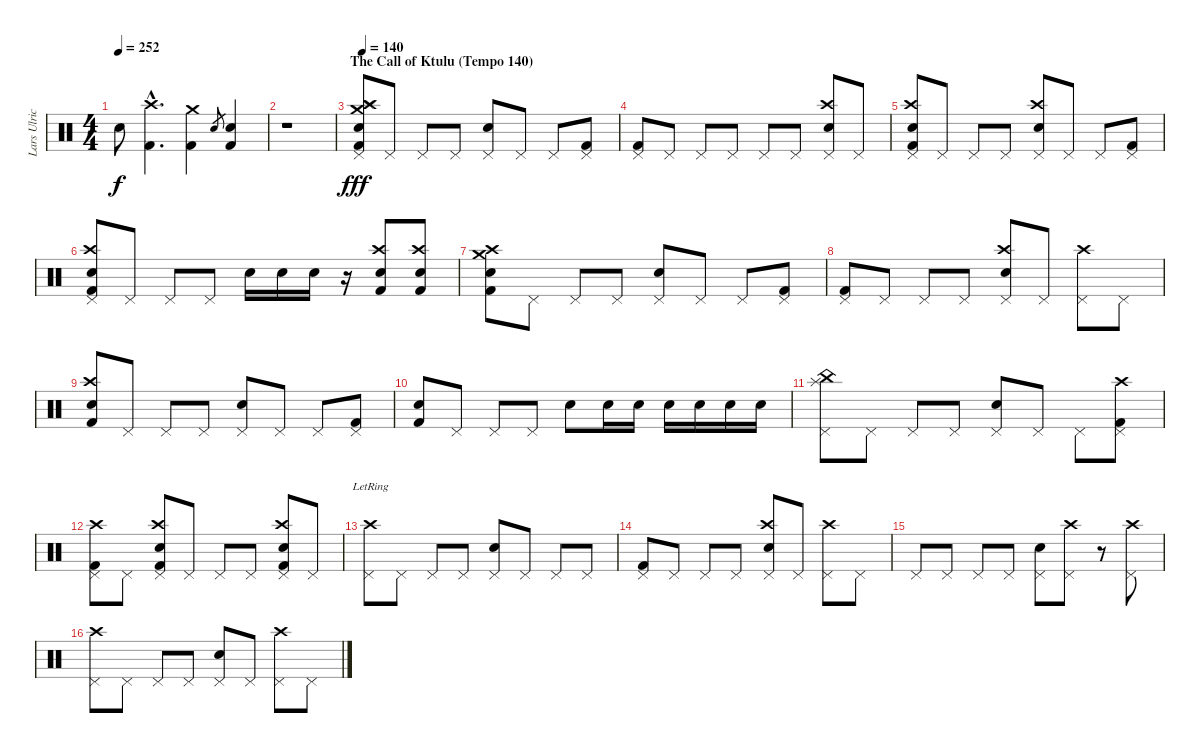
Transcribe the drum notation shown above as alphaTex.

\track ("Lars Ulrich (Drums)" "Lars Ulric") {instrument percussion}
\staff {score}
\articulation defaults
\ts (4 4)
\tempo 252
\clef neutral
\ks c "Snare (hit)"{t}.8{dy f}
("Crash high (hit)"{hac} "Kick (hit) 2"{hac}).4{d} ("Crash medium (hit)" "Kick (hit) 2").4 "Electric Snare (hit)".8{gr} ("Electric Snare (hit)" "Kick (hit) 2").4 |
r.1 |
\section ("" "The Call of Ktulu (Tempo 140)")
\tempo 140
("Crash medium (hit)" "Splash (hit)" "Pedal Hi-Hat (hit)" "Crash high (hit)" "Snare (hit) 2" "Kick (hit) 2").8{dy fff} "Pedal Hi-Hat (hit)".8 "Pedal Hi-Hat (hit)".8 "Pedal Hi-Hat (hit)".8 ("Pedal Hi-Hat (hit)" "Snare (hit) 2").8 "Pedal Hi-Hat (hit)".8 "Pedal Hi-Hat (hit)".8 ("Pedal Hi-Hat (hit)" "Kick (hit) 2").8 |
("Pedal Hi-Hat (hit)" "Kick (hit) 2").8 "Pedal Hi-Hat (hit)".8 "Pedal Hi-Hat (hit)".8 "Pedal Hi-Hat (hit)".8 "Pedal Hi-Hat (hit)".8 "Pedal Hi-Hat (hit)".8 ("Crash high (hit)" "Pedal Hi-Hat (hit)" "Snare (hit) 2").8 "Pedal Hi-Hat (hit)".8 |
("Crash high (hit)" "Pedal Hi-Hat (hit)" "Snare (hit) 2" "Kick (hit) 2").8 "Pedal Hi-Hat (hit)".8 "Pedal Hi-Hat (hit)".8 "Pedal Hi-Hat (hit)".8 ("Crash high (hit)" "Pedal Hi-Hat (hit)" "Snare (hit) 2").8 "Pedal Hi-Hat (hit)".8 "Pedal Hi-Hat (hit)".8 ("Pedal Hi-Hat (hit)" "Kick (hit) 2").8 |
("Crash high (hit)" "Pedal Hi-Hat (hit)" "Snare (hit) 2" "Kick (hit) 2").8 "Pedal Hi-Hat (hit)".8 "Pedal Hi-Hat (hit)".8 "Pedal Hi-Hat (hit)".8 "Snare (hit) 2".16 "Snare (hit) 2".16 "Snare (hit) 2".16 r.16 ("Crash high (hit)" "Snare (hit) 2" "Kick (hit) 2").8 ("Crash high (hit)" "Snare (hit) 2" "Kick (hit) 2").8 |
("Crash medium (hit)" "Crash high (hit)" "Snare (hit) 2" "Kick (hit) 2").8 "Pedal Hi-Hat (hit)".8 "Pedal Hi-Hat (hit)".8 "Pedal Hi-Hat (hit)".8 ("Pedal Hi-Hat (hit)" "Snare (hit) 2").8 "Pedal Hi-Hat (hit)".8 "Pedal Hi-Hat (hit)".8 ("Pedal Hi-Hat (hit)" "Kick (hit) 2").8 |
("Pedal Hi-Hat (hit)" "Kick (hit) 2").8 "Pedal Hi-Hat (hit)".8 "Pedal Hi-Hat (hit)".8 "Pedal Hi-Hat (hit)".8 ("Crash high (hit)" "Pedal Hi-Hat (hit)" "Snare (hit) 2").8 "Pedal Hi-Hat (hit)".8 ("Crash high (hit)" "Pedal Hi-Hat (hit)").8 "Pedal Hi-Hat (hit)".8 |
("Crash high (hit)" "Snare (hit) 2" "Kick (hit) 2").8 "Pedal Hi-Hat (hit)".8 "Pedal Hi-Hat (hit)".8 "Pedal Hi-Hat (hit)".8 ("Pedal Hi-Hat (hit)" "Snare (hit) 2").8 "Pedal Hi-Hat (hit)".8 "Pedal Hi-Hat (hit)".8 ("Pedal Hi-Hat (hit)" "Kick (hit) 2").8 |
("Snare (hit) 2" "Kick (hit) 2").8 "Pedal Hi-Hat (hit)".8 "Pedal Hi-Hat (hit)".8 "Pedal Hi-Hat (hit)".8 "Snare (hit) 2".8 "Snare (hit) 2".16 "Snare (hit) 2".16 "Snare (hit) 2".16 "Snare (hit) 2".16 "Snare (hit) 2".16 "Snare (hit) 2".16 |
("China (hit)" "Splash (hit)" "Pedal Hi-Hat (hit)").8 "Pedal Hi-Hat (hit)".8 "Pedal Hi-Hat (hit)".8 "Pedal Hi-Hat (hit)".8 ("Pedal Hi-Hat (hit)" "Snare (hit) 2").8 "Pedal Hi-Hat (hit)".8 "Pedal Hi-Hat (hit)".8 ("Crash high (hit)" "Pedal Hi-Hat (hit)" "Kick (hit) 2").8 |
("Crash high (hit)" "Pedal Hi-Hat (hit)" "Kick (hit) 2").8 "Pedal Hi-Hat (hit)".8 ("Snare (hit) 2" "Crash high (hit)" "Pedal Hi-Hat (hit)" "Kick (hit) 2").8 "Pedal Hi-Hat (hit)".8 "Pedal Hi-Hat (hit)".8 "Pedal Hi-Hat (hit)".8 ("Snare (hit) 2" "Crash high (hit)" "Pedal Hi-Hat (hit)" "Kick (hit) 2").8 "Pedal Hi-Hat (hit)".8 |
("Crash high (hit)"{lr} "Pedal Hi-Hat (hit)").8 "Pedal Hi-Hat (hit)".8 "Pedal Hi-Hat (hit)".8 "Pedal Hi-Hat (hit)".8 ("Pedal Hi-Hat (hit)" "Snare (hit) 2").8 "Pedal Hi-Hat (hit)".8 "Pedal Hi-Hat (hit)".8 "Pedal Hi-Hat (hit)".8 |
("Pedal Hi-Hat (hit)" "Kick (hit) 2").8 "Pedal Hi-Hat (hit)".8 "Pedal Hi-Hat (hit)".8 "Pedal Hi-Hat (hit)".8 ("Crash high (hit)" "Pedal Hi-Hat (hit)" "Snare (hit) 2").8 "Pedal Hi-Hat (hit)".8 ("Crash high (hit)" "Pedal Hi-Hat (hit)").8 "Pedal Hi-Hat (hit)".8 |
"Pedal Hi-Hat (hit)".8 "Pedal Hi-Hat (hit)".8 "Pedal Hi-Hat (hit)".8 "Pedal Hi-Hat (hit)".8 ("Pedal Hi-Hat (hit)" "Snare (hit) 2").8 ("Crash high (hit)" "Pedal Hi-Hat (hit)").8 r.8 ("Crash high (hit)" "Pedal Hi-Hat (hit)").8 |
("Crash high (hit)" "Pedal Hi-Hat (hit)").8 "Pedal Hi-Hat (hit)".8 "Pedal Hi-Hat (hit)".8 "Pedal Hi-Hat (hit)".8 ("Pedal Hi-Hat (hit)" "Snare (hit) 2").8 "Pedal Hi-Hat (hit)".8 ("Crash high (hit)" "Pedal Hi-Hat (hit)").8 "Pedal Hi-Hat (hit)".8
